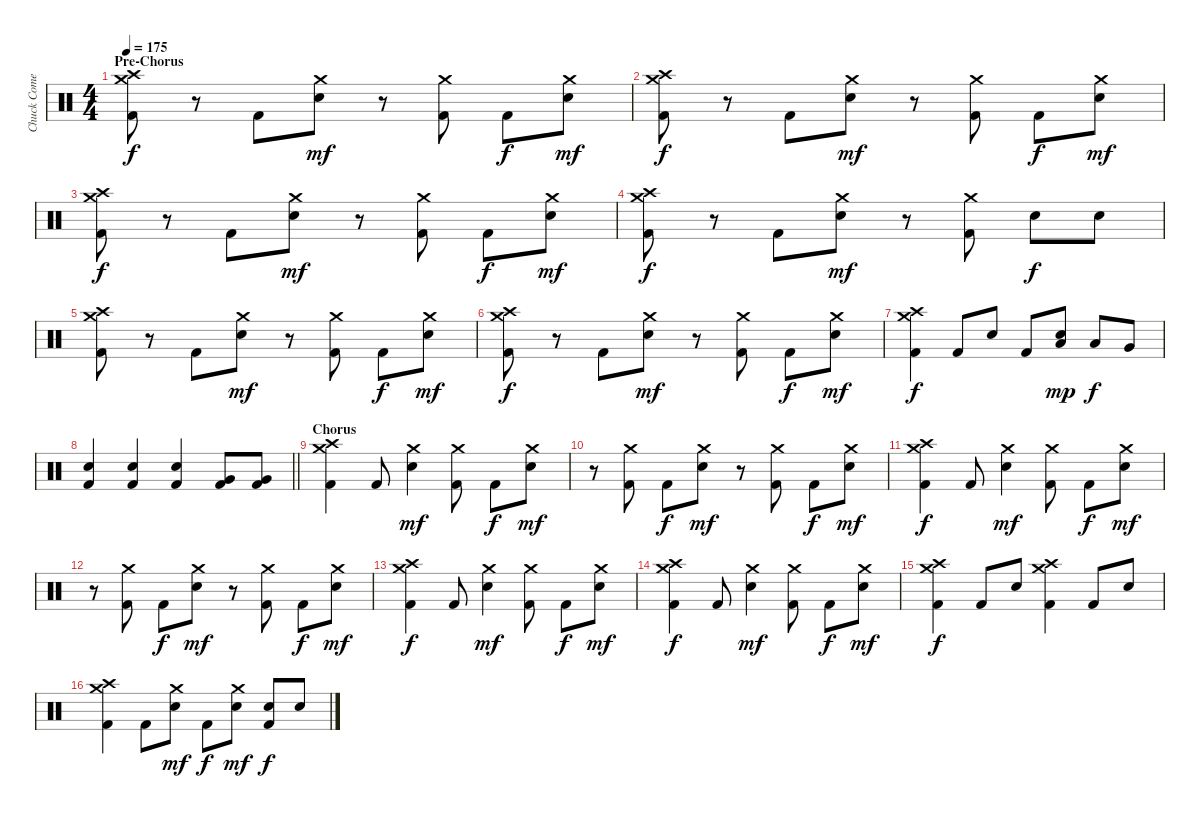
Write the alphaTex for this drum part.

\track ("Chuck Comeau" "Chuck Come") {instrument percussion}
\staff {score}
\articulation defaults
\ts (4 4)
\section ("" "Pre-Chorus")
\tempo 175
\clef neutral
\ks c
("Crash high (hit)" "Crash medium (hit)" "Kick (hit) 2").8{dy f} r.8 "Kick (hit) 2".8 ("Crash medium (hit)" "Electric Snare (hit)").8{dy mf} r.8 ("Crash medium (hit)" "Kick (hit) 2").8 "Kick (hit) 2".8{dy f} ("Crash medium (hit)" "Electric Snare (hit)").8{dy mf} |
("Crash high (hit)" "Crash medium (hit)" "Kick (hit) 2").8{dy f} r.8 "Kick (hit) 2".8 ("Crash medium (hit)" "Electric Snare (hit)").8{dy mf} r.8 ("Crash medium (hit)" "Kick (hit) 2").8 "Kick (hit) 2".8{dy f} ("Crash medium (hit)" "Electric Snare (hit)").8{dy mf} |
("Crash high (hit)" "Crash medium (hit)" "Kick (hit) 2").8{dy f} r.8 "Kick (hit) 2".8 ("Crash medium (hit)" "Electric Snare (hit)").8{dy mf} r.8 ("Crash medium (hit)" "Kick (hit) 2").8 "Kick (hit) 2".8{dy f} ("Crash medium (hit)" "Electric Snare (hit)").8{dy mf} |
("Crash high (hit)" "Crash medium (hit)" "Kick (hit) 2").8{dy f} r.8 "Kick (hit) 2".8 ("Crash medium (hit)" "Electric Snare (hit)").8{dy mf} r.8 ("Crash medium (hit)" "Kick (hit) 2").8 "Electric Snare (hit)".8{dy f} "Electric Snare (hit)".8 |
("Crash high (hit)" "Crash medium (hit)" "Kick (hit) 2").8 r.8 "Kick (hit) 2".8 ("Crash medium (hit)" "Electric Snare (hit)").8{dy mf} r.8 ("Crash medium (hit)" "Kick (hit) 2").8 "Kick (hit) 2".8{dy f} ("Crash medium (hit)" "Electric Snare (hit)").8{dy mf} |
("Crash high (hit)" "Crash medium (hit)" "Kick (hit) 2").8{dy f} r.8 "Kick (hit) 2".8 ("Crash medium (hit)" "Electric Snare (hit)").8{dy mf} r.8 ("Crash medium (hit)" "Kick (hit) 2").8 "Kick (hit) 2".8{dy f} ("Crash medium (hit)" "Electric Snare (hit)").8{dy mf} |
("Crash high (hit)" "Crash medium (hit)" "Kick (hit) 2").4{dy f} "Kick (hit) 2".8 "Electric Snare (hit)".8 "Kick (hit) 2".8 ("Electric Snare (hit)" "Low Tom (hit)").8{dy mp} "Low Tom (hit)".8{dy f} "Very Low Tom (hit)".8 |
\barLineRight lightlight
("Electric Snare (hit)" "Kick (hit) 2").4 ("Electric Snare (hit)" "Kick (hit) 2").4 ("Electric Snare (hit)" "Kick (hit) 2").4 ("Very Low Tom (hit)" "Kick (hit) 2").8 ("Very Low Tom (hit)" "Kick (hit) 2").8 |
\section ("" "Chorus")
("Crash high (hit)" "Crash medium (hit)" "Kick (hit) 2").4 "Kick (hit) 2".8 ("Crash medium (hit)" "Electric Snare (hit)").4{dy mf} ("Crash medium (hit)" "Kick (hit) 2").8 "Kick (hit) 2".8{dy f} ("Crash medium (hit)" "Electric Snare (hit)").8{dy mf} |
r.8 ("Crash medium (hit)" "Kick (hit) 2").8 "Kick (hit) 2".8{dy f} ("Crash medium (hit)" "Electric Snare (hit)").8{dy mf} r.8 ("Crash medium (hit)" "Kick (hit) 2").8 "Kick (hit) 2".8{dy f} ("Crash medium (hit)" "Electric Snare (hit)").8{dy mf} |
("Crash high (hit)" "Crash medium (hit)" "Kick (hit) 2").4{dy f} "Kick (hit) 2".8 ("Crash medium (hit)" "Electric Snare (hit)").4{dy mf} ("Crash medium (hit)" "Kick (hit) 2").8 "Kick (hit) 2".8{dy f} ("Crash medium (hit)" "Electric Snare (hit)").8{dy mf} |
r.8 ("Crash medium (hit)" "Kick (hit) 2").8 "Kick (hit) 2".8{dy f} ("Crash medium (hit)" "Electric Snare (hit)").8{dy mf} r.8 ("Crash medium (hit)" "Kick (hit) 2").8 "Kick (hit) 2".8{dy f} ("Crash medium (hit)" "Electric Snare (hit)").8{dy mf} |
("Crash high (hit)" "Crash medium (hit)" "Kick (hit) 2").4{dy f} "Kick (hit) 2".8 ("Crash medium (hit)" "Electric Snare (hit)").4{dy mf} ("Crash medium (hit)" "Kick (hit) 2").8 "Kick (hit) 2".8{dy f} ("Crash medium (hit)" "Electric Snare (hit)").8{dy mf} |
("Crash high (hit)" "Crash medium (hit)" "Kick (hit) 2").4{dy f} "Kick (hit) 2".8 ("Crash medium (hit)" "Electric Snare (hit)").4{dy mf} ("Crash medium (hit)" "Kick (hit) 2").8 "Kick (hit) 2".8{dy f} ("Crash medium (hit)" "Electric Snare (hit)").8{dy mf} |
("Crash high (hit)" "Crash medium (hit)" "Kick (hit) 2").4{dy f} "Kick (hit) 2".8 "Electric Snare (hit)".8 ("Crash high (hit)" "Crash medium (hit)" "Kick (hit) 2").4 "Kick (hit) 2".8 "Electric Snare (hit)".8 |
("Crash high (hit)" "Crash medium (hit)" "Kick (hit) 2").4 "Kick (hit) 2".8 ("Crash medium (hit)" "Electric Snare (hit)").8{dy mf} "Kick (hit) 2".8{dy f} ("Crash medium (hit)" "Electric Snare (hit)").8{dy mf} ("Electric Snare (hit)" "Kick (hit) 2").8{dy f} "Electric Snare (hit)".8
